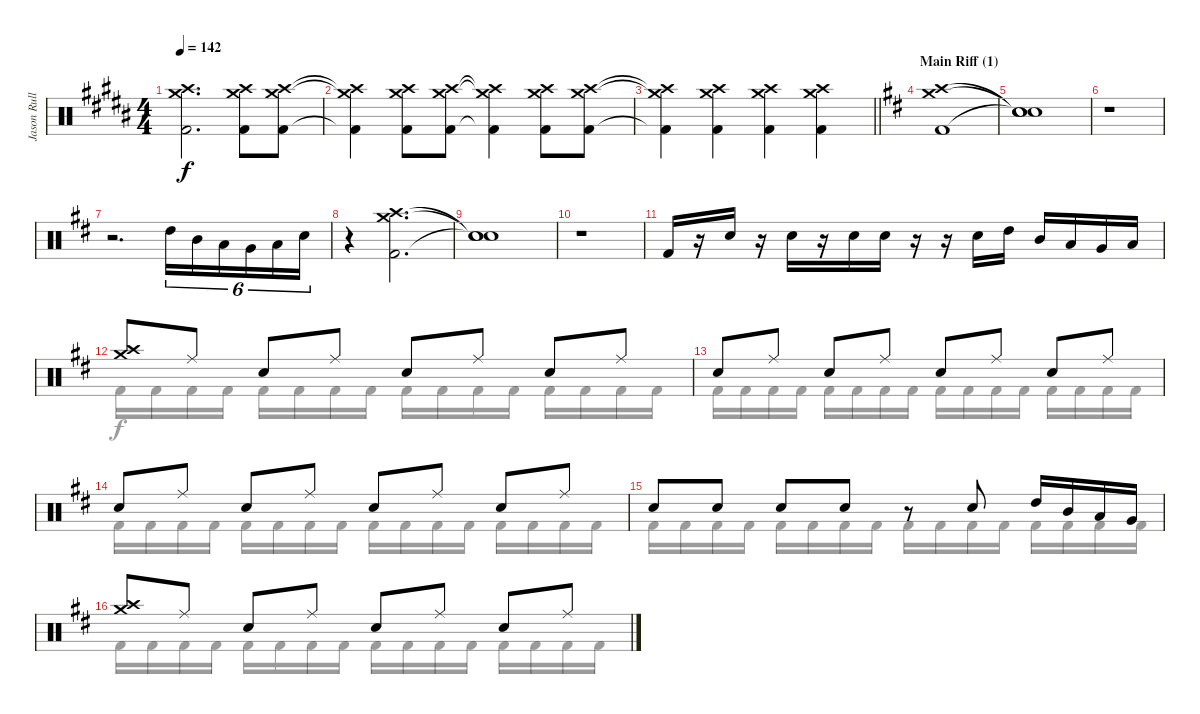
\track ("Jason Rullo (drums)" "Jason Rull") {instrument percussion}
\staff {score}
\articulation defaults
\voice
\ts (4 4)
\tempo 142
\clef neutral
\ks g#minor
("Crash high (hit)"{t} "Crash medium (hit)"{t} "Kick (hit) 2"{t}).2{d dy f} ("Crash high (hit)" "Crash medium (hit)" "Kick (hit) 2").8 ("Crash high (hit)" "Crash medium (hit)" "Kick (hit) 2").8 |
("Crash high (hit)"{t} "Crash medium (hit)"{t} "Kick (hit) 2"{t}).4 ("Crash high (hit)" "Crash medium (hit)" "Kick (hit) 2").8 ("Crash high (hit)" "Crash medium (hit)" "Kick (hit) 2").8 ("Crash high (hit)"{t} "Crash medium (hit)"{t} "Kick (hit) 2"{t}).4 ("Crash high (hit)" "Crash medium (hit)" "Kick (hit) 2").8 ("Crash high (hit)" "Crash medium (hit)" "Kick (hit) 2").8 |
\barLineRight lightlight
("Crash high (hit)"{t} "Crash medium (hit)"{t} "Kick (hit) 2"{t}).4 ("Crash high (hit)" "Crash medium (hit)" "Kick (hit) 2").4 ("Crash high (hit)" "Crash medium (hit)" "Kick (hit) 2").4 ("Crash high (hit)" "Crash medium (hit)" "Kick (hit) 2").4 |
\section ("" "Main Riff (1)")
\ks bminor
("Crash high (hit)" "Kick (hit) 2" "Crash medium (hit)").1 |
("Snare (hit)"{t} "Snare (hit)"{t} "Snare (hit)"{t}).1 |
r.1 |
r.2{d} "High Tom (hit)".16{tu (6 4)} "Mid Tom (hit)".16{tu (6 4)} "Low Tom (hit)".16{tu (6 4)} "Very Low Tom (hit)".16{tu (6 4)} "Low Floor Tom (hit)".16{tu (6 4)} "Electric Snare (hit)".16{tu (6 4)} |
r.4 ("Crash high (hit)" "Kick (hit) 2" "Crash medium (hit)").2{d} |
("Snare (hit)"{t} "Snare (hit)"{t} "Snare (hit)"{t}).1 |
r.1 |
"Kick (hit) 2".16 r.16 "Electric Snare (hit)".16 r.16 "Electric Snare (hit)".16 r.16 "Electric Snare (hit)".16 "Electric Snare (hit)".16 r.16 r.16 "Electric Snare (hit)".16 "High Tom (hit)".16 "Mid Tom (hit)".16 "Low Tom (hit)".16 "Very Low Tom (hit)".16 "Low Floor Tom (hit)".16 |
("Crash medium (hit)" "Crash high (hit)").8 "Ride (middle)".8 "Electric Snare (hit)".8 "Ride (middle)".8 "Electric Snare (hit)".8 "Ride (middle)".8 "Electric Snare (hit)".8 "Ride (middle)".8 |
"Electric Snare (hit)".8 "Ride (middle)".8 "Electric Snare (hit)".8 "Ride (middle)".8 "Electric Snare (hit)".8 "Ride (middle)".8 "Electric Snare (hit)".8 "Ride (middle)".8 |
"Electric Snare (hit)".8 "Ride (middle)".8 "Electric Snare (hit)".8 "Ride (middle)".8 "Electric Snare (hit)".8 "Ride (middle)".8 "Electric Snare (hit)".8 "Ride (middle)".8 |
"Electric Snare (hit)".8 "Electric Snare (hit)".8 "Electric Snare (hit)".8 "Electric Snare (hit)".8 r.8 "Electric Snare (hit)".8 "High Tom (hit)".16 "Mid Tom (hit)".16 "Low Tom (hit)".16 "Very Low Tom (hit)".16 |
("Crash medium (hit)" "Crash high (hit)").8 "Ride (middle)".8 "Electric Snare (hit)".8 "Ride (middle)".8 "Electric Snare (hit)".8 "Ride (middle)".8 "Electric Snare (hit)".8 "Ride (middle)".8
\voice
\clef neutral
\ottava regular
\simile none
\ks g#minor
|
|
\barLineRight lightlight
|
\ks bminor
|
|
|
|
|
|
|
|
"Kick (hit) 2".16 "Kick (hit) 2".16 "Kick (hit) 2".16 "Kick (hit) 2".16 "Kick (hit) 2".16 "Kick (hit) 2".16 "Kick (hit) 2".16 "Kick (hit) 2".16 "Kick (hit) 2".16 "Kick (hit) 2".16 "Kick (hit) 2".16 "Kick (hit) 2".16 "Kick (hit) 2".16 "Kick (hit) 2".16 "Kick (hit) 2".16 "Kick (hit) 2".16 |
"Kick (hit) 2".16 "Kick (hit) 2".16 "Kick (hit) 2".16 "Kick (hit) 2".16 "Kick (hit) 2".16 "Kick (hit) 2".16 "Kick (hit) 2".16 "Kick (hit) 2".16 "Kick (hit) 2".16 "Kick (hit) 2".16 "Kick (hit) 2".16 "Kick (hit) 2".16 "Kick (hit) 2".16 "Kick (hit) 2".16 "Kick (hit) 2".16 "Kick (hit) 2".16 |
"Kick (hit) 2".16 "Kick (hit) 2".16 "Kick (hit) 2".16 "Kick (hit) 2".16 "Kick (hit) 2".16 "Kick (hit) 2".16 "Kick (hit) 2".16 "Kick (hit) 2".16 "Kick (hit) 2".16 "Kick (hit) 2".16 "Kick (hit) 2".16 "Kick (hit) 2".16 "Kick (hit) 2".16 "Kick (hit) 2".16 "Kick (hit) 2".16 "Kick (hit) 2".16 |
"Kick (hit) 2".16 "Kick (hit) 2".16 "Kick (hit) 2".16 "Kick (hit) 2".16 "Kick (hit) 2".16 "Kick (hit) 2".16 "Kick (hit) 2".16 "Kick (hit) 2".16 "Kick (hit) 2".16 "Kick (hit) 2".16 "Kick (hit) 2".16 "Kick (hit) 2".16 "Kick (hit) 2".16 "Kick (hit) 2".16 "Kick (hit) 2".16 "Kick (hit) 2".16 |
"Kick (hit) 2".16 "Kick (hit) 2".16 "Kick (hit) 2".16 "Kick (hit) 2".16 "Kick (hit) 2".16 "Kick (hit) 2".16 "Kick (hit) 2".16 "Kick (hit) 2".16 "Kick (hit) 2".16 "Kick (hit) 2".16 "Kick (hit) 2".16 "Kick (hit) 2".16 "Kick (hit) 2".16 "Kick (hit) 2".16 "Kick (hit) 2".16 "Kick (hit) 2".16
